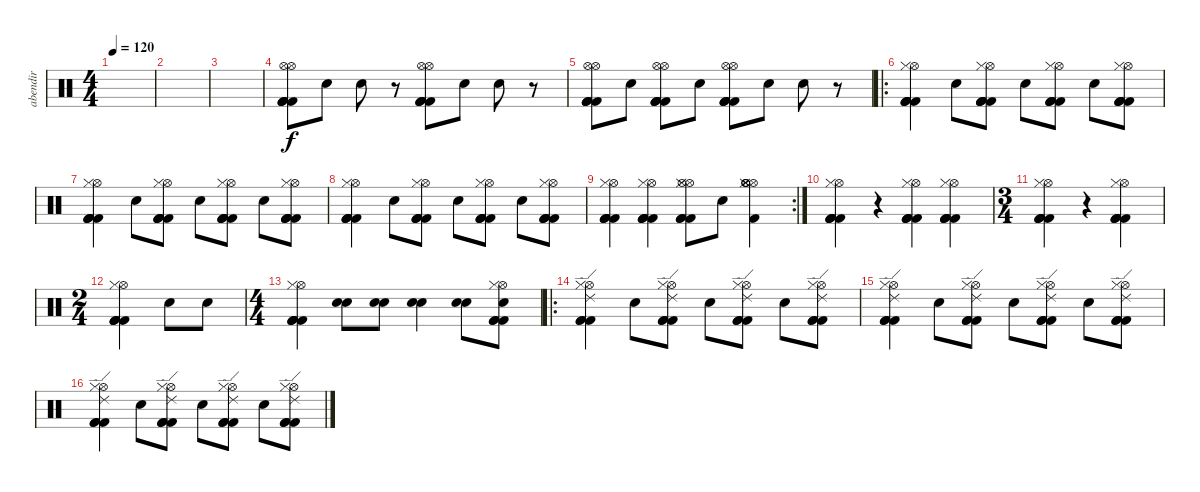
\track ("abendir" "abendir") {instrument percussion}
\staff {score}
\articulation defaults
\ts (4 4)
\tempo 120
\clef neutral
\ks c
|
|
|
("Hi-Hat (open)" "Kick (hit) 2" "Kick (hit) 2" "Kick (hit) 2" "Kick (hit) 2" "Hi-Hat (open)").8 "Electric Snare (hit)".8 "Electric Snare (hit)".8 r.8 ("Hi-Hat (open)" "Kick (hit) 2" "Kick (hit) 2" "Kick (hit) 2" "Kick (hit) 2" "Hi-Hat (open)").8 "Electric Snare (hit)".8 "Electric Snare (hit)".8 r.8 |
("Hi-Hat (open)" "Kick (hit) 2" "Kick (hit) 2" "Kick (hit) 2" "Kick (hit) 2" "Hi-Hat (open)").8 "Electric Snare (hit)".8 ("Hi-Hat (open)" "Kick (hit) 2" "Kick (hit) 2" "Kick (hit) 2" "Kick (hit) 2" "Hi-Hat (open)").8 "Electric Snare (hit)".8 ("Hi-Hat (open)" "Kick (hit) 2" "Kick (hit) 2" "Kick (hit) 2" "Kick (hit) 2" "Hi-Hat (open)").8 "Electric Snare (hit)".8 "Electric Snare (hit)".8 r.8 |
\ro
("Hi-Hat (open)" "Kick (hit) 2" "Kick (hit) 2" "Kick (hit) 2" "Kick (hit) 2" "Hi-Hat (closed)").4 "Electric Snare (hit)".8 ("Hi-Hat (open)" "Kick (hit) 2" "Kick (hit) 2" "Kick (hit) 2" "Kick (hit) 2" "Hi-Hat (closed)").8 "Electric Snare (hit)".8 ("Hi-Hat (open)" "Kick (hit) 2" "Kick (hit) 2" "Kick (hit) 2" "Kick (hit) 2" "Hi-Hat (closed)").8 "Electric Snare (hit)".8 ("Hi-Hat (open)" "Kick (hit) 2" "Kick (hit) 2" "Kick (hit) 2" "Kick (hit) 2" "Hi-Hat (closed)").8 |
("Hi-Hat (open)" "Kick (hit) 2" "Kick (hit) 2" "Kick (hit) 2" "Kick (hit) 2" "Hi-Hat (closed)").4 "Electric Snare (hit)".8 ("Hi-Hat (open)" "Kick (hit) 2" "Kick (hit) 2" "Kick (hit) 2" "Kick (hit) 2" "Hi-Hat (closed)").8 "Electric Snare (hit)".8 ("Hi-Hat (open)" "Kick (hit) 2" "Kick (hit) 2" "Kick (hit) 2" "Kick (hit) 2" "Hi-Hat (closed)").8 "Electric Snare (hit)".8 ("Hi-Hat (open)" "Kick (hit) 2" "Kick (hit) 2" "Kick (hit) 2" "Kick (hit) 2" "Hi-Hat (closed)").8 |
("Hi-Hat (open)" "Kick (hit) 2" "Kick (hit) 2" "Kick (hit) 2" "Kick (hit) 2" "Hi-Hat (closed)").4 "Electric Snare (hit)".8 ("Hi-Hat (open)" "Kick (hit) 2" "Kick (hit) 2" "Kick (hit) 2" "Kick (hit) 2" "Hi-Hat (closed)").8 "Electric Snare (hit)".8 ("Hi-Hat (open)" "Kick (hit) 2" "Kick (hit) 2" "Kick (hit) 2" "Kick (hit) 2" "Hi-Hat (closed)").8 "Electric Snare (hit)".8 ("Hi-Hat (open)" "Kick (hit) 2" "Kick (hit) 2" "Kick (hit) 2" "Kick (hit) 2" "Hi-Hat (closed)").8 |
\rc 2
("Hi-Hat (open)" "Kick (hit) 2" "Kick (hit) 2" "Kick (hit) 2" "Kick (hit) 2" "Hi-Hat (closed)").4 ("Hi-Hat (open)" "Kick (hit) 2" "Kick (hit) 2" "Kick (hit) 2" "Kick (hit) 2" "Hi-Hat (closed)").4 ("Hi-Hat (open)" "Hi-Hat (open)" "Kick (hit) 2" "Kick (hit) 2" "Kick (hit) 2" "Hi-Hat (closed)").8 "Electric Snare (hit)".8 ("Hi-Hat (open)" "Hi-Hat (open)" "Kick (hit) 2" "Hi-Hat (open)" "Hi-Hat (open)" "Hi-Hat (closed)").4 |
("Hi-Hat (open)" "Kick (hit) 2" "Kick (hit) 2" "Kick (hit) 2" "Kick (hit) 2" "Hi-Hat (closed)").4 r.4 ("Hi-Hat (open)" "Kick (hit) 2" "Kick (hit) 2" "Kick (hit) 2" "Kick (hit) 2" "Hi-Hat (closed)").4 ("Hi-Hat (open)" "Kick (hit) 2" "Kick (hit) 2" "Kick (hit) 2" "Kick (hit) 2" "Hi-Hat (closed)").4 |
\ts (3 4)
("Hi-Hat (open)" "Kick (hit) 2" "Kick (hit) 2" "Kick (hit) 2" "Kick (hit) 2" "Hi-Hat (closed)").4 r.4 ("Hi-Hat (open)" "Kick (hit) 2" "Kick (hit) 2" "Kick (hit) 2" "Kick (hit) 2" "Hi-Hat (closed)").4 |
\ts (2 4)
("Hi-Hat (open)" "Kick (hit) 2" "Kick (hit) 2" "Kick (hit) 2" "Kick (hit) 2" "Hi-Hat (closed)").4 "Snare (hit) 2".8 "Snare (hit) 2".8 |
\ts (4 4)
("Hi-Hat (open)" "Kick (hit) 2" "Kick (hit) 2" "Kick (hit) 2" "Kick (hit) 2" "Hi-Hat (closed)").4 ("Electric Snare (hit)" "Snare (hit) 2").8 ("Electric Snare (hit)" "Snare (hit) 2").8 ("Electric Snare (hit)" "Snare (hit) 2").4 ("Electric Snare (hit)" "Snare (hit) 2").8 ("Electric Snare (hit)" "Kick (hit) 2" "Kick (hit) 2" "Kick (hit) 2" "Hi-Hat (open)" "Hi-Hat (closed)").8 |
\ro
("Hi-Hat (open)" "Ride (edge) 2" "Kick (hit) 2" "Kick (hit) 2" "Kick (hit) 2" "Hi-Hat (closed)").4 "Electric Snare (hit)".8 ("Hi-Hat (open)" "Ride (edge) 2" "Kick (hit) 2" "Kick (hit) 2" "Kick (hit) 2" "Hi-Hat (closed)").8 "Electric Snare (hit)".8 ("Hi-Hat (open)" "Ride (edge) 2" "Kick (hit) 2" "Kick (hit) 2" "Kick (hit) 2" "Hi-Hat (closed)").8 "Electric Snare (hit)".8 ("Hi-Hat (open)" "Ride (edge) 2" "Kick (hit) 2" "Kick (hit) 2" "Kick (hit) 2" "Hi-Hat (closed)").8 |
("Hi-Hat (open)" "Ride (edge) 2" "Kick (hit) 2" "Kick (hit) 2" "Kick (hit) 2" "Hi-Hat (closed)").4 "Electric Snare (hit)".8 ("Hi-Hat (open)" "Ride (edge) 2" "Kick (hit) 2" "Kick (hit) 2" "Kick (hit) 2" "Hi-Hat (closed)").8 "Electric Snare (hit)".8 ("Hi-Hat (open)" "Ride (edge) 2" "Kick (hit) 2" "Kick (hit) 2" "Kick (hit) 2" "Hi-Hat (closed)").8 "Electric Snare (hit)".8 ("Hi-Hat (open)" "Ride (edge) 2" "Kick (hit) 2" "Kick (hit) 2" "Kick (hit) 2" "Hi-Hat (closed)").8 |
("Hi-Hat (open)" "Ride (edge) 2" "Kick (hit) 2" "Kick (hit) 2" "Kick (hit) 2" "Hi-Hat (closed)").4 "Electric Snare (hit)".8 ("Hi-Hat (open)" "Ride (edge) 2" "Kick (hit) 2" "Kick (hit) 2" "Kick (hit) 2" "Hi-Hat (closed)").8 "Electric Snare (hit)".8 ("Hi-Hat (open)" "Ride (edge) 2" "Kick (hit) 2" "Kick (hit) 2" "Kick (hit) 2" "Hi-Hat (closed)").8 "Electric Snare (hit)".8 ("Hi-Hat (open)" "Ride (edge) 2" "Kick (hit) 2" "Kick (hit) 2" "Kick (hit) 2" "Hi-Hat (closed)").8
